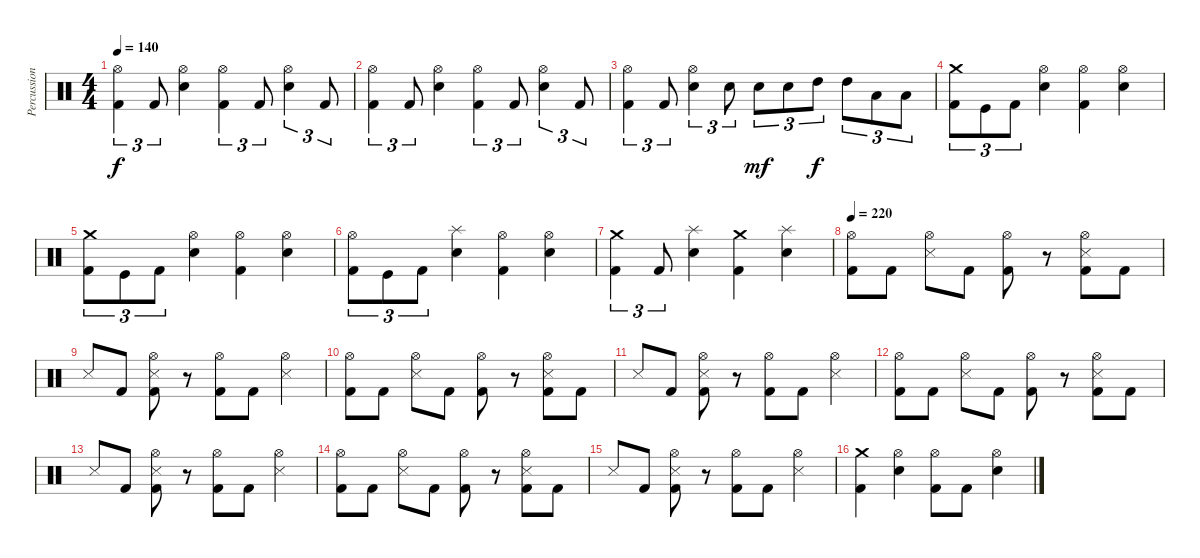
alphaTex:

\track ("Percussions" "Percussion") {instrument percussion}
\staff {score}
\articulation defaults
\ts (4 4)
\tempo 140
\clef neutral
\ks c
("Hi-Hat (open)" "Kick (hit) 2").4{tu (3 2) dy f} "Kick (hit) 2".8{tu (3 2)} ("Hi-Hat (open)" "Electric Snare (hit)").4 ("Hi-Hat (open)" "Kick (hit) 2").4{tu (3 2)} "Kick (hit) 2".8{tu (3 2)} ("Hi-Hat (open)" "Electric Snare (hit)").4{tu (3 2)} "Kick (hit) 2".8{tu (3 2)} |
("Hi-Hat (open)" "Kick (hit) 2").4{tu (3 2)} "Kick (hit) 2".8{tu (3 2)} ("Hi-Hat (open)" "Electric Snare (hit)").4 ("Hi-Hat (open)" "Kick (hit) 2").4{tu (3 2)} "Kick (hit) 2".8{tu (3 2)} ("Hi-Hat (open)" "Electric Snare (hit)").4{tu (3 2)} "Kick (hit) 2".8{tu (3 2)} |
("Hi-Hat (open)" "Kick (hit) 2").4{tu (3 2)} "Kick (hit) 2".8{tu (3 2)} ("Hi-Hat (open)" "Electric Snare (hit)").4{tu (3 2)} "Electric Snare (hit)".8{tu (3 2)} "Electric Snare (hit)".8{tu (3 2) dy mf} "Electric Snare (hit)".8{tu (3 2)} "High Tom (hit)".8{tu (3 2) dy f} "High Tom (hit)".8{tu (3 2)} "Low Tom (hit)".8{tu (3 2)} "Low Tom (hit)".8{tu (3 2)} |
("Crash medium (hit)" "Kick (hit) 2").8{tu (3 2)} "Kick (hit)".8{tu (3 2)} "Kick (hit) 2".8{tu (3 2)} ("Hi-Hat (open)" "Electric Snare (hit)").4 ("Hi-Hat (open)" "Kick (hit) 2").4 ("Hi-Hat (open)" "Electric Snare (hit)").4 |
("Crash medium (hit)" "Kick (hit) 2").8{tu (3 2)} "Kick (hit)".8{tu (3 2)} "Kick (hit) 2".8{tu (3 2)} ("Hi-Hat (open)" "Electric Snare (hit)").4 ("Hi-Hat (open)" "Kick (hit) 2").4 ("Hi-Hat (open)" "Electric Snare (hit)").4 |
("Hi-Hat (open)" "Kick (hit) 2").8{tu (3 2)} "Kick (hit)".8{tu (3 2)} "Kick (hit) 2".8{tu (3 2)} ("Splash (hit)" "Electric Snare (hit)").4 ("Hi-Hat (open)" "Kick (hit) 2").4 ("Hi-Hat (open)" "Electric Snare (hit)").4 |
("Crash medium (hit)" "Kick (hit) 2").4{tu (3 2)} "Kick (hit) 2".8{tu (3 2)} ("Splash (hit)" "Electric Snare (hit)").4 ("Crash medium (hit)" "Kick (hit) 2").4 ("Splash (hit)" "Electric Snare (hit)").4 |
\tempo 220
("Hi-Hat (open)" "Kick (hit) 2").8 "Kick (hit) 2".8 ("Hi-Hat (open)" "Snare (side stick) 3").8 "Kick (hit) 2".8 ("Hi-Hat (open)" "Kick (hit) 2").8 r.8 ("Hi-Hat (open)" "Snare (side stick) 3" "Kick (hit) 2").8 "Kick (hit) 2".8 |
"Snare (side stick) 3".8 "Kick (hit) 2".8 ("Hi-Hat (open)" "Snare (side stick) 3" "Kick (hit) 2").8 r.8 ("Hi-Hat (open)" "Kick (hit) 2").8 "Kick (hit) 2".8 ("Hi-Hat (open)" "Snare (side stick) 3").4 |
("Hi-Hat (open)" "Kick (hit) 2").8 "Kick (hit) 2".8 ("Hi-Hat (open)" "Snare (side stick) 3").8 "Kick (hit) 2".8 ("Hi-Hat (open)" "Kick (hit) 2").8 r.8 ("Hi-Hat (open)" "Snare (side stick) 3" "Kick (hit) 2").8 "Kick (hit) 2".8 |
"Snare (side stick) 3".8 "Kick (hit) 2".8 ("Hi-Hat (open)" "Snare (side stick) 3" "Kick (hit) 2").8 r.8 ("Hi-Hat (open)" "Kick (hit) 2").8 "Kick (hit) 2".8 ("Hi-Hat (open)" "Snare (side stick) 3").4 |
("Hi-Hat (open)" "Kick (hit) 2").8 "Kick (hit) 2".8 ("Hi-Hat (open)" "Snare (side stick) 3").8 "Kick (hit) 2".8 ("Hi-Hat (open)" "Kick (hit) 2").8 r.8 ("Hi-Hat (open)" "Snare (side stick) 3" "Kick (hit) 2").8 "Kick (hit) 2".8 |
"Snare (side stick) 3".8 "Kick (hit) 2".8 ("Hi-Hat (open)" "Snare (side stick) 3" "Kick (hit) 2").8 r.8 ("Hi-Hat (open)" "Kick (hit) 2").8 "Kick (hit) 2".8 ("Hi-Hat (open)" "Snare (side stick) 3").4 |
("Hi-Hat (open)" "Kick (hit) 2").8 "Kick (hit) 2".8 ("Hi-Hat (open)" "Snare (side stick) 3").8 "Kick (hit) 2".8 ("Hi-Hat (open)" "Kick (hit) 2").8 r.8 ("Hi-Hat (open)" "Snare (side stick) 3" "Kick (hit) 2").8 "Kick (hit) 2".8 |
"Snare (side stick) 3".8 "Kick (hit) 2".8 ("Hi-Hat (open)" "Snare (side stick) 3" "Kick (hit) 2").8 r.8 ("Hi-Hat (open)" "Kick (hit) 2").8 "Kick (hit) 2".8 ("Hi-Hat (open)" "Snare (side stick) 3").4 |
("Crash medium (hit)" "Kick (hit) 2").4 ("Hi-Hat (open)" "Electric Snare (hit)").4 ("Hi-Hat (open)" "Kick (hit) 2").8 "Kick (hit) 2".8 ("Hi-Hat (open)" "Electric Snare (hit)").4
